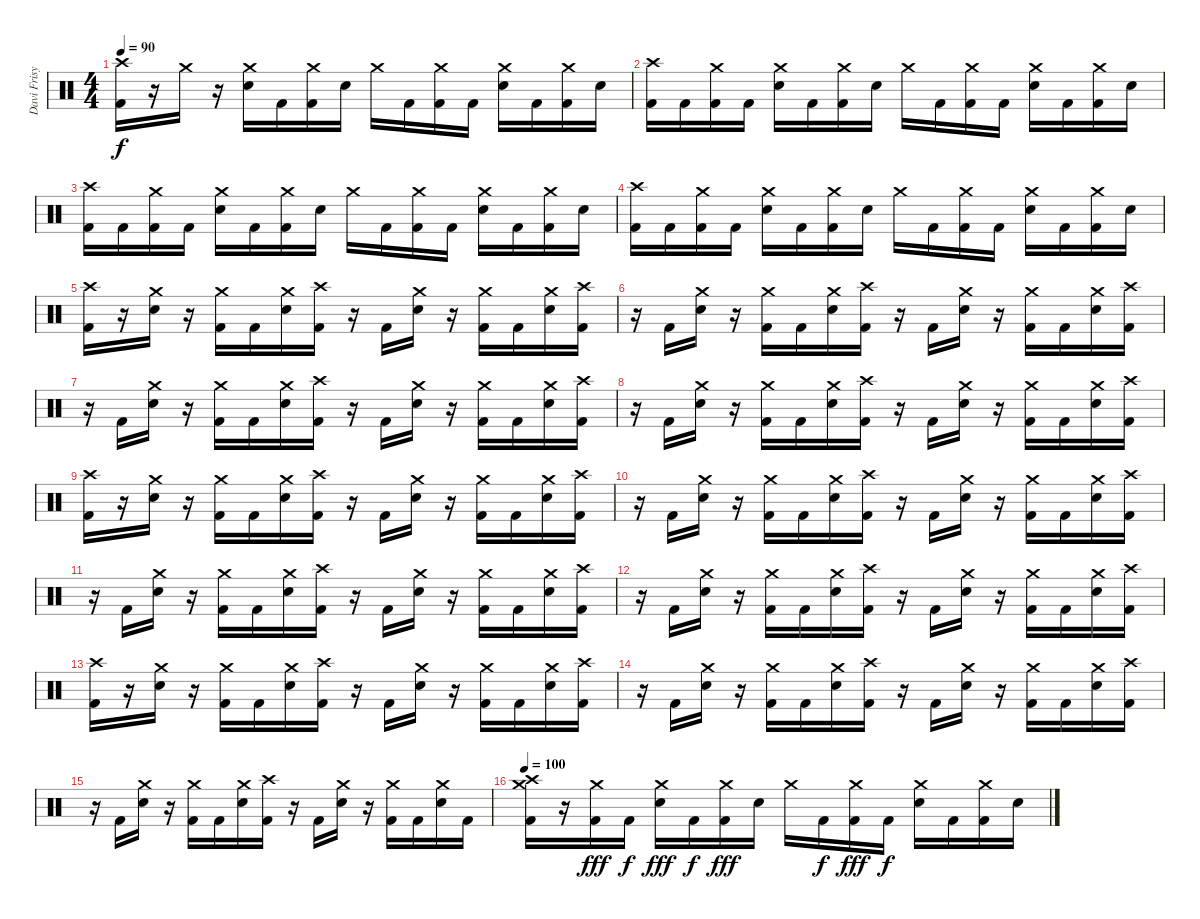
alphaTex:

\track ("Davi Frisya" "Davi Frisy") {instrument percussion}
\staff {score}
\articulation defaults
\ts (4 4)
\tempo 90
\clef neutral
\ks c
("Crash high (hit)" "Kick (hit) 2").16{dy f} r.16 "Crash medium (hit)".16 r.16 ("Crash medium (hit)" "Electric Snare (hit)").16 "Kick (hit) 2".16 ("Crash medium (hit)" "Kick (hit) 2").16 "Electric Snare (hit)".16 "Crash medium (hit)".16 "Kick (hit) 2".16 ("Crash medium (hit)" "Kick (hit) 2").16 "Kick (hit) 2".16 ("Crash medium (hit)" "Electric Snare (hit)").16 "Kick (hit) 2".16 ("Crash medium (hit)" "Kick (hit) 2").16 "Electric Snare (hit)".16 |
("Crash high (hit)" "Kick (hit) 2").16 "Kick (hit) 2".16 ("Crash medium (hit)" "Kick (hit) 2").16 "Kick (hit) 2".16 ("Crash medium (hit)" "Electric Snare (hit)").16 "Kick (hit) 2".16 ("Crash medium (hit)" "Kick (hit) 2").16 "Electric Snare (hit)".16 "Crash medium (hit)".16 "Kick (hit) 2".16 ("Crash medium (hit)" "Kick (hit) 2").16 "Kick (hit) 2".16 ("Crash medium (hit)" "Electric Snare (hit)").16 "Kick (hit) 2".16 ("Crash medium (hit)" "Kick (hit) 2").16 "Electric Snare (hit)".16 |
("Crash high (hit)" "Kick (hit) 2").16 "Kick (hit) 2".16 ("Crash medium (hit)" "Kick (hit) 2").16 "Kick (hit) 2".16 ("Crash medium (hit)" "Electric Snare (hit)").16 "Kick (hit) 2".16 ("Crash medium (hit)" "Kick (hit) 2").16 "Electric Snare (hit)".16 "Crash medium (hit)".16 "Kick (hit) 2".16 ("Crash medium (hit)" "Kick (hit) 2").16 "Kick (hit) 2".16 ("Crash medium (hit)" "Electric Snare (hit)").16 "Kick (hit) 2".16 ("Crash medium (hit)" "Kick (hit) 2").16 "Electric Snare (hit)".16 |
("Crash high (hit)" "Kick (hit) 2").16 "Kick (hit) 2".16 ("Crash medium (hit)" "Kick (hit) 2").16 "Kick (hit) 2".16 ("Crash medium (hit)" "Electric Snare (hit)").16 "Kick (hit) 2".16 ("Crash medium (hit)" "Kick (hit) 2").16 "Electric Snare (hit)".16 "Crash medium (hit)".16 "Kick (hit) 2".16 ("Crash medium (hit)" "Kick (hit) 2").16 "Kick (hit) 2".16 ("Crash medium (hit)" "Electric Snare (hit)").16 "Kick (hit) 2".16 ("Crash medium (hit)" "Kick (hit) 2").16 "Electric Snare (hit)".16 |
("Crash high (hit)" "Kick (hit) 2").16 r.16 ("Crash medium (hit)" "Electric Snare (hit)").16 r.16 ("Crash medium (hit)" "Kick (hit) 2").16 "Kick (hit) 2".16 ("Crash medium (hit)" "Electric Snare (hit)").16 ("Crash high (hit)" "Kick (hit) 2").16 r.16 "Kick (hit) 2".16 ("Crash medium (hit)" "Electric Snare (hit)").16 r.16 ("Crash medium (hit)" "Kick (hit) 2").16 "Kick (hit) 2".16 ("Crash medium (hit)" "Electric Snare (hit)").16 ("Crash high (hit)" "Kick (hit) 2").16 |
r.16 "Kick (hit) 2".16 ("Crash medium (hit)" "Electric Snare (hit)").16 r.16 ("Crash medium (hit)" "Kick (hit) 2").16 "Kick (hit) 2".16 ("Crash medium (hit)" "Electric Snare (hit)").16 ("Crash high (hit)" "Kick (hit) 2").16 r.16 "Kick (hit) 2".16 ("Crash medium (hit)" "Electric Snare (hit)").16 r.16 ("Crash medium (hit)" "Kick (hit) 2").16 "Kick (hit) 2".16 ("Crash medium (hit)" "Electric Snare (hit)").16 ("Crash high (hit)" "Kick (hit) 2").16 |
r.16 "Kick (hit) 2".16 ("Crash medium (hit)" "Electric Snare (hit)").16 r.16 ("Crash medium (hit)" "Kick (hit) 2").16 "Kick (hit) 2".16 ("Crash medium (hit)" "Electric Snare (hit)").16 ("Crash high (hit)" "Kick (hit) 2").16 r.16 "Kick (hit) 2".16 ("Crash medium (hit)" "Electric Snare (hit)").16 r.16 ("Crash medium (hit)" "Kick (hit) 2").16 "Kick (hit) 2".16 ("Crash medium (hit)" "Electric Snare (hit)").16 ("Crash high (hit)" "Kick (hit) 2").16 |
r.16 "Kick (hit) 2".16 ("Crash medium (hit)" "Electric Snare (hit)").16 r.16 ("Crash medium (hit)" "Kick (hit) 2").16 "Kick (hit) 2".16 ("Crash medium (hit)" "Electric Snare (hit)").16 ("Crash high (hit)" "Kick (hit) 2").16 r.16 "Kick (hit) 2".16 ("Crash medium (hit)" "Electric Snare (hit)").16 r.16 ("Crash medium (hit)" "Kick (hit) 2").16 "Kick (hit) 2".16 ("Crash medium (hit)" "Electric Snare (hit)").16 ("Crash high (hit)" "Kick (hit) 2").16 |
("Crash high (hit)" "Kick (hit) 2").16 r.16 ("Crash medium (hit)" "Electric Snare (hit)").16 r.16 ("Crash medium (hit)" "Kick (hit) 2").16 "Kick (hit) 2".16 ("Crash medium (hit)" "Electric Snare (hit)").16 ("Crash high (hit)" "Kick (hit) 2").16 r.16 "Kick (hit) 2".16 ("Crash medium (hit)" "Electric Snare (hit)").16 r.16 ("Crash medium (hit)" "Kick (hit) 2").16 "Kick (hit) 2".16 ("Crash medium (hit)" "Electric Snare (hit)").16 ("Crash high (hit)" "Kick (hit) 2").16 |
r.16 "Kick (hit) 2".16 ("Crash medium (hit)" "Electric Snare (hit)").16 r.16 ("Crash medium (hit)" "Kick (hit) 2").16 "Kick (hit) 2".16 ("Crash medium (hit)" "Electric Snare (hit)").16 ("Crash high (hit)" "Kick (hit) 2").16 r.16 "Kick (hit) 2".16 ("Crash medium (hit)" "Electric Snare (hit)").16 r.16 ("Crash medium (hit)" "Kick (hit) 2").16 "Kick (hit) 2".16 ("Crash medium (hit)" "Electric Snare (hit)").16 ("Crash high (hit)" "Kick (hit) 2").16 |
r.16 "Kick (hit) 2".16 ("Crash medium (hit)" "Electric Snare (hit)").16 r.16 ("Crash medium (hit)" "Kick (hit) 2").16 "Kick (hit) 2".16 ("Crash medium (hit)" "Electric Snare (hit)").16 ("Crash high (hit)" "Kick (hit) 2").16 r.16 "Kick (hit) 2".16 ("Crash medium (hit)" "Electric Snare (hit)").16 r.16 ("Crash medium (hit)" "Kick (hit) 2").16 "Kick (hit) 2".16 ("Crash medium (hit)" "Electric Snare (hit)").16 ("Crash high (hit)" "Kick (hit) 2").16 |
r.16 "Kick (hit) 2".16 ("Crash medium (hit)" "Electric Snare (hit)").16 r.16 ("Crash medium (hit)" "Kick (hit) 2").16 "Kick (hit) 2".16 ("Crash medium (hit)" "Electric Snare (hit)").16 ("Crash high (hit)" "Kick (hit) 2").16 r.16 "Kick (hit) 2".16 ("Crash medium (hit)" "Electric Snare (hit)").16 r.16 ("Crash medium (hit)" "Kick (hit) 2").16 "Kick (hit) 2".16 ("Crash medium (hit)" "Electric Snare (hit)").16 ("Crash high (hit)" "Kick (hit) 2").16 |
("Crash high (hit)" "Kick (hit) 2").16 r.16 ("Crash medium (hit)" "Electric Snare (hit)").16 r.16 ("Crash medium (hit)" "Kick (hit) 2").16 "Kick (hit) 2".16 ("Crash medium (hit)" "Electric Snare (hit)").16 ("Crash high (hit)" "Kick (hit) 2").16 r.16 "Kick (hit) 2".16 ("Crash medium (hit)" "Electric Snare (hit)").16 r.16 ("Crash medium (hit)" "Kick (hit) 2").16 "Kick (hit) 2".16 ("Crash medium (hit)" "Electric Snare (hit)").16 ("Crash high (hit)" "Kick (hit) 2").16 |
r.16 "Kick (hit) 2".16 ("Crash medium (hit)" "Electric Snare (hit)").16 r.16 ("Crash medium (hit)" "Kick (hit) 2").16 "Kick (hit) 2".16 ("Crash medium (hit)" "Electric Snare (hit)").16 ("Crash high (hit)" "Kick (hit) 2").16 r.16 "Kick (hit) 2".16 ("Crash medium (hit)" "Electric Snare (hit)").16 r.16 ("Crash medium (hit)" "Kick (hit) 2").16 "Kick (hit) 2".16 ("Crash medium (hit)" "Electric Snare (hit)").16 ("Crash high (hit)" "Kick (hit) 2").16 |
r.16 "Kick (hit) 2".16 ("Crash medium (hit)" "Electric Snare (hit)").16 r.16 ("Crash medium (hit)" "Kick (hit) 2").16 "Kick (hit) 2".16 ("Crash medium (hit)" "Electric Snare (hit)").16 ("Crash high (hit)" "Kick (hit) 2").16 r.16 "Kick (hit) 2".16 ("Crash medium (hit)" "Electric Snare (hit)").16 r.16 ("Crash medium (hit)" "Kick (hit) 2").16 "Kick (hit) 2".16 ("Crash medium (hit)" "Electric Snare (hit)").16 "Kick (hit) 2".16 |
\tempo 100
("Crash medium (hit)" "Crash high (hit)" "Kick (hit) 2").16 r.16 ("Crash medium (hit)" "Kick (hit) 2").16{dy fff} "Kick (hit) 2".16{dy f} ("Crash medium (hit)" "Electric Snare (hit)").16{dy fff} "Kick (hit) 2".16{dy f} ("Crash medium (hit)" "Kick (hit) 2").16{dy fff} "Electric Snare (hit)".16 "Crash medium (hit)".16 "Kick (hit) 2".16{dy f} ("Crash medium (hit)" "Kick (hit) 2").16{dy fff} "Kick (hit) 2".16{dy f} ("Crash medium (hit)" "Electric Snare (hit)").16 "Kick (hit) 2".16 ("Crash medium (hit)" "Kick (hit) 2").16 "Electric Snare (hit)".16
